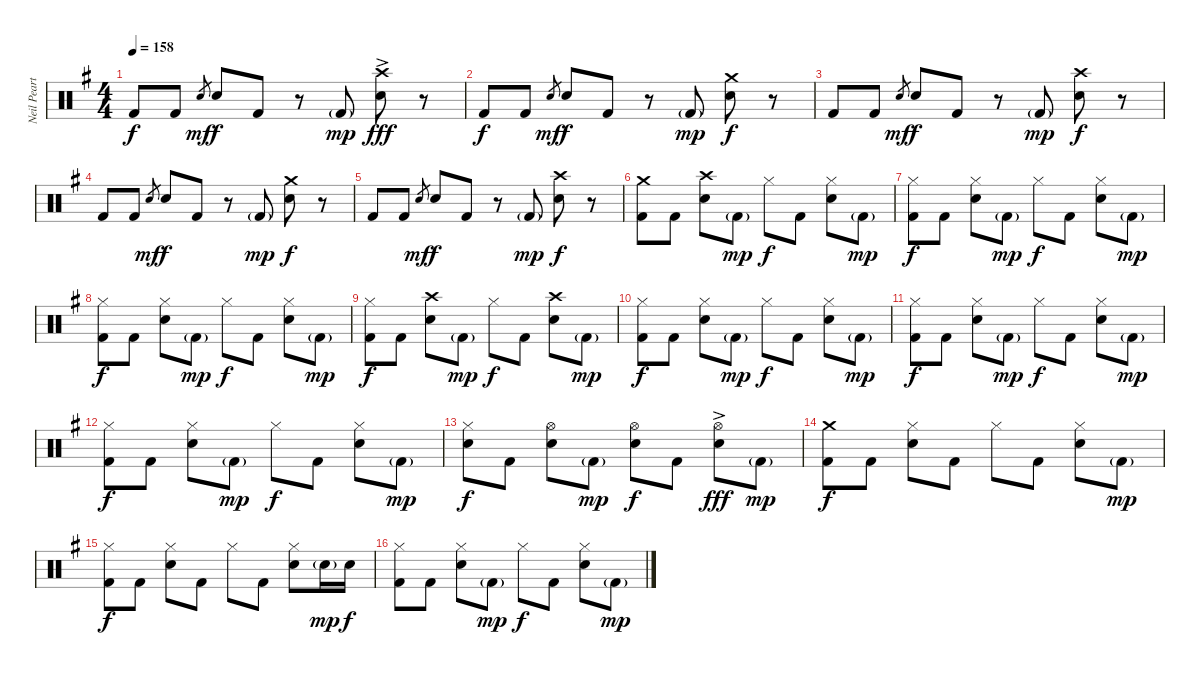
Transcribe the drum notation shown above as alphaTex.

\track ("Neil Peart (drums)" "Neil Peart") {instrument percussion}
\staff {score}
\articulation defaults
\ts (4 4)
\tempo 158
\clef neutral
\ks eminor "Kick (hit) 2".8{dy f} "Kick (hit) 2".8 "Electric Snare (hit)".8{gr dy mf} "Electric Snare (hit)".8{dy f} "Kick (hit) 2".8
r.8 "Kick (hit) 2"{g}.8{dy mp} ("Crash high (hit)"{ac} "Electric Snare (hit)").8{dy fff} r.8 |
"Kick (hit) 2".8{dy f} "Kick (hit) 2".8 "Electric Snare (hit)".8{gr dy mf} "Electric Snare (hit)".8{dy f} "Kick (hit) 2".8 r.8 "Kick (hit) 2"{g}.8{dy mp} ("Crash medium (hit)" "Electric Snare (hit)").8{dy f} r.8 |
"Kick (hit) 2".8 "Kick (hit) 2".8 "Electric Snare (hit)".8{gr dy mf} "Electric Snare (hit)".8{dy f} "Kick (hit) 2".8 r.8 "Kick (hit) 2"{g}.8{dy mp} ("Crash high (hit)" "Electric Snare (hit)").8{dy f} r.8 |
"Kick (hit) 2".8 "Kick (hit) 2".8 "Electric Snare (hit)".8{gr dy mf} "Electric Snare (hit)".8{dy f} "Kick (hit) 2".8 r.8 "Kick (hit) 2"{g}.8{dy mp} ("Crash medium (hit)" "Electric Snare (hit)").8{dy f} r.8 |
"Kick (hit) 2".8 "Kick (hit) 2".8 "Electric Snare (hit)".8{gr dy mf} "Electric Snare (hit)".8{dy f} "Kick (hit) 2".8 r.8 "Kick (hit) 2"{g}.8{dy mp} ("Crash high (hit)" "Electric Snare (hit)").8{dy f} r.8 |
("Crash medium (hit)" "Kick (hit) 2").8 "Kick (hit) 2".8 ("Crash high (hit)" "Electric Snare (hit)").8 "Kick (hit) 2"{g}.8{dy mp} "Hi-Hat (closed)".8{dy f} "Kick (hit) 2".8 ("Hi-Hat (closed)" "Electric Snare (hit)").8 "Kick (hit) 2"{g}.8{dy mp} |
("Hi-Hat (closed)" "Kick (hit) 2").8{dy f} "Kick (hit) 2".8 ("Hi-Hat (closed)" "Electric Snare (hit)").8 "Kick (hit) 2"{g}.8{dy mp} "Hi-Hat (closed)".8{dy f} "Kick (hit) 2".8 ("Hi-Hat (closed)" "Electric Snare (hit)").8 "Kick (hit) 2"{g}.8{dy mp} |
("Hi-Hat (closed)" "Kick (hit) 2").8{dy f} "Kick (hit) 2".8 ("Hi-Hat (closed)" "Electric Snare (hit)").8 "Kick (hit) 2"{g}.8{dy mp} "Hi-Hat (closed)".8{dy f} "Kick (hit) 2".8 ("Hi-Hat (closed)" "Electric Snare (hit)").8 "Kick (hit) 2"{g}.8{dy mp} |
("Hi-Hat (closed)" "Kick (hit) 2").8{dy f} "Kick (hit) 2".8 ("Crash high (hit)" "Electric Snare (hit)").8 "Kick (hit) 2"{g}.8{dy mp} "Hi-Hat (closed)".8{dy f} "Kick (hit) 2".8 ("Crash high (hit)" "Electric Snare (hit)").8 "Kick (hit) 2"{g}.8{dy mp} |
("Hi-Hat (closed)" "Kick (hit) 2").8{dy f} "Kick (hit) 2".8 ("Hi-Hat (closed)" "Electric Snare (hit)").8 "Kick (hit) 2"{g}.8{dy mp} "Hi-Hat (closed)".8{dy f} "Kick (hit) 2".8 ("Hi-Hat (closed)" "Electric Snare (hit)").8 "Kick (hit) 2"{g}.8{dy mp} |
("Hi-Hat (closed)" "Kick (hit) 2").8{dy f} "Kick (hit) 2".8 ("Hi-Hat (closed)" "Electric Snare (hit)").8 "Kick (hit) 2"{g}.8{dy mp} "Hi-Hat (closed)".8{dy f} "Kick (hit) 2".8 ("Hi-Hat (closed)" "Electric Snare (hit)").8 "Kick (hit) 2"{g}.8{dy mp} |
("Hi-Hat (closed)" "Kick (hit) 2").8{dy f} "Kick (hit) 2".8 ("Hi-Hat (closed)" "Electric Snare (hit)").8 "Kick (hit) 2"{g}.8{dy mp} "Hi-Hat (closed)".8{dy f} "Kick (hit) 2".8 ("Hi-Hat (closed)" "Electric Snare (hit)").8 "Kick (hit) 2"{g}.8{dy mp} |
("Hi-Hat (closed)" "Electric Snare (hit)").8{dy f} "Kick (hit) 2".8 ("Hi-Hat (open)" "Electric Snare (hit)").8 "Kick (hit) 2"{g}.8{dy mp} ("Hi-Hat (open)" "Electric Snare (hit)").8{dy f} "Kick (hit) 2".8 ("Hi-Hat (open)"{ac} "Electric Snare (hit)").8{dy fff} "Kick (hit) 2"{g}.8{dy mp} |
("Crash medium (hit)" "Kick (hit) 2").8{dy f} "Kick (hit) 2".8 ("Hi-Hat (closed)" "Electric Snare (hit)").8 "Kick (hit) 2".8 "Hi-Hat (closed)".8 "Kick (hit) 2".8 ("Hi-Hat (closed)" "Electric Snare (hit)").8 "Kick (hit) 2"{g}.8{dy mp} |
("Hi-Hat (closed)" "Kick (hit) 2").8{dy f} "Kick (hit) 2".8 ("Hi-Hat (closed)" "Electric Snare (hit)").8 "Kick (hit) 2".8 "Hi-Hat (closed)".8 "Kick (hit) 2".8 ("Hi-Hat (closed)" "Electric Snare (hit)").8 "Electric Snare (hit)"{g}.16{dy mp} "Electric Snare (hit)".16{dy f} |
("Hi-Hat (closed)" "Kick (hit) 2").8 "Kick (hit) 2".8 ("Hi-Hat (closed)" "Electric Snare (hit)").8 "Kick (hit) 2"{g}.8{dy mp} "Hi-Hat (closed)".8{dy f} "Kick (hit) 2".8 ("Hi-Hat (closed)" "Electric Snare (hit)").8 "Kick (hit) 2"{g}.8{dy mp}
